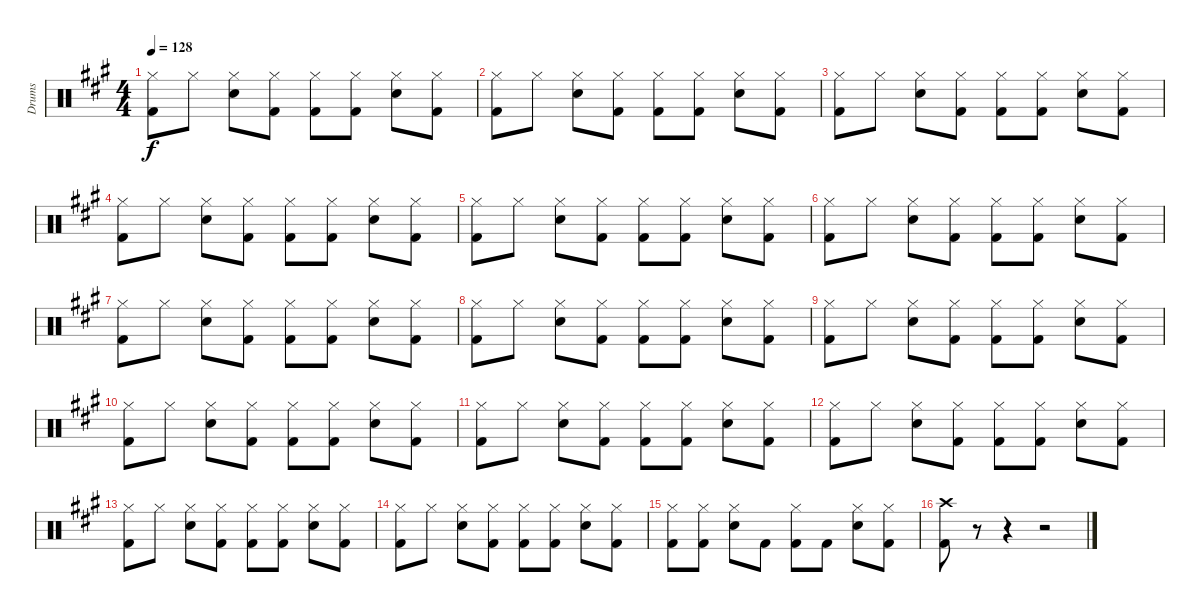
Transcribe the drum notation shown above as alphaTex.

\track ("Drums" "Drums") {instrument percussion}
\staff {score}
\articulation defaults
\ts (4 4)
\tempo 128
\clef neutral
\ks a
("Hi-Hat (closed)" "Kick (hit) 2").8{dy f} "Hi-Hat (closed)".8 ("Hi-Hat (closed)" "Snare (hit) 2").8 ("Hi-Hat (closed)" "Kick (hit) 2").8 ("Hi-Hat (closed)" "Kick (hit) 2").8 ("Hi-Hat (closed)" "Kick (hit) 2").8 ("Hi-Hat (closed)" "Snare (hit) 2").8 ("Hi-Hat (closed)" "Kick (hit) 2").8 |
("Hi-Hat (closed)" "Kick (hit) 2").8 "Hi-Hat (closed)".8 ("Hi-Hat (closed)" "Snare (hit) 2").8 ("Hi-Hat (closed)" "Kick (hit) 2").8 ("Hi-Hat (closed)" "Kick (hit) 2").8 ("Hi-Hat (closed)" "Kick (hit) 2").8 ("Hi-Hat (closed)" "Snare (hit) 2").8 ("Hi-Hat (closed)" "Kick (hit) 2").8 |
("Hi-Hat (closed)" "Kick (hit) 2").8 "Hi-Hat (closed)".8 ("Hi-Hat (closed)" "Snare (hit) 2").8 ("Hi-Hat (closed)" "Kick (hit) 2").8 ("Hi-Hat (closed)" "Kick (hit) 2").8 ("Hi-Hat (closed)" "Kick (hit) 2").8 ("Hi-Hat (closed)" "Snare (hit) 2").8 ("Hi-Hat (closed)" "Kick (hit) 2").8 |
("Hi-Hat (closed)" "Kick (hit) 2").8 "Hi-Hat (closed)".8 ("Hi-Hat (closed)" "Snare (hit) 2").8 ("Hi-Hat (closed)" "Kick (hit) 2").8 ("Hi-Hat (closed)" "Kick (hit) 2").8 ("Hi-Hat (closed)" "Kick (hit) 2").8 ("Hi-Hat (closed)" "Snare (hit) 2").8 ("Hi-Hat (closed)" "Kick (hit) 2").8 |
("Hi-Hat (closed)" "Kick (hit) 2").8 "Hi-Hat (closed)".8 ("Hi-Hat (closed)" "Snare (hit) 2").8 ("Hi-Hat (closed)" "Kick (hit) 2").8 ("Hi-Hat (closed)" "Kick (hit) 2").8 ("Hi-Hat (closed)" "Kick (hit) 2").8 ("Hi-Hat (closed)" "Snare (hit) 2").8 ("Hi-Hat (closed)" "Kick (hit) 2").8 |
("Hi-Hat (closed)" "Kick (hit) 2").8 "Hi-Hat (closed)".8 ("Hi-Hat (closed)" "Snare (hit) 2").8 ("Hi-Hat (closed)" "Kick (hit) 2").8 ("Hi-Hat (closed)" "Kick (hit) 2").8 ("Hi-Hat (closed)" "Kick (hit) 2").8 ("Hi-Hat (closed)" "Snare (hit) 2").8 ("Hi-Hat (closed)" "Kick (hit) 2").8 |
("Hi-Hat (closed)" "Kick (hit) 2").8 "Hi-Hat (closed)".8 ("Hi-Hat (closed)" "Snare (hit) 2").8 ("Hi-Hat (closed)" "Kick (hit) 2").8 ("Hi-Hat (closed)" "Kick (hit) 2").8 ("Hi-Hat (closed)" "Kick (hit) 2").8 ("Hi-Hat (closed)" "Snare (hit) 2").8 ("Hi-Hat (closed)" "Kick (hit) 2").8 |
("Hi-Hat (closed)" "Kick (hit) 2").8 "Hi-Hat (closed)".8 ("Hi-Hat (closed)" "Snare (hit) 2").8 ("Hi-Hat (closed)" "Kick (hit) 2").8 ("Hi-Hat (closed)" "Kick (hit) 2").8 ("Hi-Hat (closed)" "Kick (hit) 2").8 ("Hi-Hat (closed)" "Snare (hit) 2").8 ("Hi-Hat (closed)" "Kick (hit) 2").8 |
("Hi-Hat (closed)" "Kick (hit) 2").8 "Hi-Hat (closed)".8 ("Hi-Hat (closed)" "Snare (hit) 2").8 ("Hi-Hat (closed)" "Kick (hit) 2").8 ("Hi-Hat (closed)" "Kick (hit) 2").8 ("Hi-Hat (closed)" "Kick (hit) 2").8 ("Hi-Hat (closed)" "Snare (hit) 2").8 ("Hi-Hat (closed)" "Kick (hit) 2").8 |
("Hi-Hat (closed)" "Kick (hit) 2").8 "Hi-Hat (closed)".8 ("Hi-Hat (closed)" "Snare (hit) 2").8 ("Hi-Hat (closed)" "Kick (hit) 2").8 ("Hi-Hat (closed)" "Kick (hit) 2").8 ("Hi-Hat (closed)" "Kick (hit) 2").8 ("Hi-Hat (closed)" "Snare (hit) 2").8 ("Hi-Hat (closed)" "Kick (hit) 2").8 |
("Hi-Hat (closed)" "Kick (hit) 2").8 "Hi-Hat (closed)".8 ("Hi-Hat (closed)" "Snare (hit) 2").8 ("Hi-Hat (closed)" "Kick (hit) 2").8 ("Hi-Hat (closed)" "Kick (hit) 2").8 ("Hi-Hat (closed)" "Kick (hit) 2").8 ("Hi-Hat (closed)" "Snare (hit) 2").8 ("Hi-Hat (closed)" "Kick (hit) 2").8 |
("Hi-Hat (closed)" "Kick (hit) 2").8 "Hi-Hat (closed)".8 ("Hi-Hat (closed)" "Snare (hit) 2").8 ("Hi-Hat (closed)" "Kick (hit) 2").8 ("Hi-Hat (closed)" "Kick (hit) 2").8 ("Hi-Hat (closed)" "Kick (hit) 2").8 ("Hi-Hat (closed)" "Snare (hit) 2").8 ("Hi-Hat (closed)" "Kick (hit) 2").8 |
("Hi-Hat (closed)" "Kick (hit) 2").8 "Hi-Hat (closed)".8 ("Hi-Hat (closed)" "Snare (hit) 2").8 ("Hi-Hat (closed)" "Kick (hit) 2").8 ("Hi-Hat (closed)" "Kick (hit) 2").8 ("Hi-Hat (closed)" "Kick (hit) 2").8 ("Hi-Hat (closed)" "Snare (hit) 2").8 ("Hi-Hat (closed)" "Kick (hit) 2").8 |
("Hi-Hat (closed)" "Kick (hit) 2").8 "Hi-Hat (closed)".8 ("Hi-Hat (closed)" "Snare (hit) 2").8 ("Hi-Hat (closed)" "Kick (hit) 2").8 ("Hi-Hat (closed)" "Kick (hit) 2").8 ("Hi-Hat (closed)" "Kick (hit) 2").8 ("Hi-Hat (closed)" "Snare (hit) 2").8 ("Hi-Hat (closed)" "Kick (hit) 2").8 |
("Hi-Hat (closed)" "Kick (hit) 2").8 ("Hi-Hat (closed)" "Kick (hit) 2").8 ("Hi-Hat (closed)" "Snare (hit) 2").8 "Kick (hit) 2".8 ("Hi-Hat (closed)" "Kick (hit) 2").8 "Kick (hit) 2".8 ("Hi-Hat (closed)" "Snare (hit) 2").8 ("Hi-Hat (closed)" "Kick (hit) 2").8 |
("Crash high (hit)" "Kick (hit) 2").8 r.8 r.4 r.2
